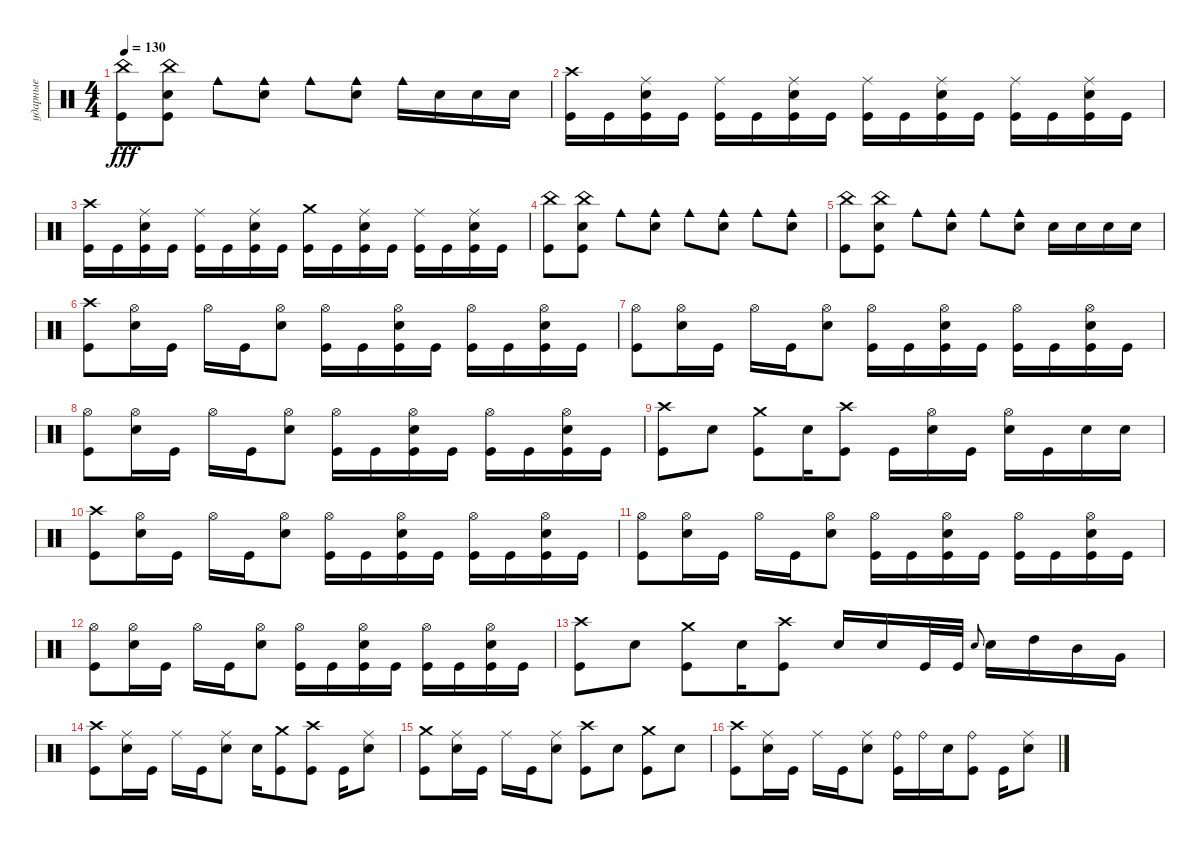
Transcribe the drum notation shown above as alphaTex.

\track ("ударные" "ударные") {instrument percussion}
\staff {score}
\articulation defaults
\ts (4 4)
\tempo 130
\clef neutral
\ks c
("China (hit)" "Kick (hit)").8{dy fff} ("China (hit)" "Snare (hit) 2" "Kick (hit)").8 "Cowbell medium (hit)".8 ("Cowbell medium (hit)" "Snare (hit) 2").8 "Cowbell medium (hit)".8 ("Cowbell medium (hit)" "Snare (hit) 2").8 "Cowbell medium (hit)".16 "Snare (hit) 2".16 "Snare (hit) 2".16 "Snare (hit) 2".16 |
("Crash high (hit)" "Kick (hit)").16 "Kick (hit)".16 ("Ride (middle)" "Snare (hit) 2" "Kick (hit)").16 "Kick (hit)".16 ("Ride (middle)" "Kick (hit)").16 "Kick (hit)".16 ("Ride (middle)" "Snare (hit) 2" "Kick (hit)").16 "Kick (hit)".16 ("Ride (middle)" "Kick (hit)").16 "Kick (hit)".16 ("Ride (middle)" "Snare (hit) 2" "Kick (hit)").16 "Kick (hit)".16 ("Ride (middle)" "Kick (hit)").16 "Kick (hit)".16 ("Ride (middle)" "Snare (hit) 2" "Kick (hit)").16 "Kick (hit)".16 |
("Crash high (hit)" "Kick (hit)").16 "Kick (hit)".16 ("Ride (middle)" "Snare (hit) 2" "Kick (hit)").16 "Kick (hit)".16 ("Ride (middle)" "Kick (hit)").16 "Kick (hit)".16 ("Ride (middle)" "Snare (hit) 2" "Kick (hit)").16 "Kick (hit)".16 ("Crash medium (hit)" "Kick (hit)").16 "Kick (hit)".16 ("Ride (middle)" "Snare (hit) 2" "Kick (hit)").16 "Kick (hit)".16 ("Ride (middle)" "Kick (hit)").16 "Kick (hit)".16 ("Ride (middle)" "Snare (hit) 2" "Kick (hit)").16 "Kick (hit)".16 |
("China (hit)" "Kick (hit)").8 ("China (hit)" "Snare (hit) 2" "Kick (hit)").8 "Cowbell medium (hit)".8 ("Cowbell medium (hit)" "Snare (hit) 2").8 "Cowbell medium (hit)".8 ("Cowbell medium (hit)" "Snare (hit) 2").8 "Cowbell medium (hit)".8 ("Cowbell medium (hit)" "Snare (hit) 2").8 |
("China (hit)" "Kick (hit)").8 ("China (hit)" "Snare (hit) 2" "Kick (hit)").8 "Cowbell medium (hit)".8 ("Cowbell medium (hit)" "Snare (hit) 2").8 "Cowbell medium (hit)".8 ("Cowbell medium (hit)" "Snare (hit) 2").8 "Snare (hit) 2".16 "Snare (hit) 2".16 "Snare (hit) 2".16 "Snare (hit) 2".16 |
("Crash high (hit)" "Kick (hit)").8 ("Hi-Hat (open)" "Snare (hit) 2").16 "Kick (hit)".16 "Hi-Hat (open)".16 "Kick (hit)".16 ("Hi-Hat (open)" "Snare (hit) 2").8 ("Hi-Hat (open)" "Kick (hit)").16 "Kick (hit)".16 ("Hi-Hat (open)" "Snare (hit) 2" "Kick (hit)").16 "Kick (hit)".16 ("Hi-Hat (open)" "Kick (hit)").16 "Kick (hit)".16 ("Hi-Hat (open)" "Snare (hit) 2" "Kick (hit)").16 "Kick (hit)".16 |
("Hi-Hat (open)" "Kick (hit)").8 ("Hi-Hat (open)" "Snare (hit) 2").16 "Kick (hit)".16 "Hi-Hat (open)".16 "Kick (hit)".16 ("Hi-Hat (open)" "Snare (hit) 2").8 ("Hi-Hat (open)" "Kick (hit)").16 "Kick (hit)".16 ("Hi-Hat (open)" "Snare (hit) 2" "Kick (hit)").16 "Kick (hit)".16 ("Hi-Hat (open)" "Kick (hit)").16 "Kick (hit)".16 ("Hi-Hat (open)" "Snare (hit) 2" "Kick (hit)").16 "Kick (hit)".16 |
("Hi-Hat (open)" "Kick (hit)").8 ("Hi-Hat (open)" "Snare (hit) 2").16 "Kick (hit)".16 "Hi-Hat (open)".16 "Kick (hit)".16 ("Hi-Hat (open)" "Snare (hit) 2").8 ("Hi-Hat (open)" "Kick (hit)").16 "Kick (hit)".16 ("Hi-Hat (open)" "Snare (hit) 2" "Kick (hit)").16 "Kick (hit)".16 ("Hi-Hat (open)" "Kick (hit)").16 "Kick (hit)".16 ("Hi-Hat (open)" "Snare (hit) 2" "Kick (hit)").16 "Kick (hit)".16 |
("Crash high (hit)" "Kick (hit)").8 "Snare (hit) 2".8 ("Crash medium (hit)" "Kick (hit)").8 "Snare (hit) 2".16 ("Crash high (hit)" "Kick (hit)").8 "Kick (hit)".16 ("Hi-Hat (open)" "Snare (hit) 2").16 "Kick (hit)".16 ("Hi-Hat (open)" "Snare (hit) 2").16 "Kick (hit)".16 "Snare (hit) 2".16 "Snare (hit) 2".16 |
("Crash high (hit)" "Kick (hit)").8 ("Hi-Hat (open)" "Snare (hit) 2").16 "Kick (hit)".16 "Hi-Hat (open)".16 "Kick (hit)".16 ("Hi-Hat (open)" "Snare (hit) 2").8 ("Hi-Hat (open)" "Kick (hit)").16 "Kick (hit)".16 ("Hi-Hat (open)" "Snare (hit) 2" "Kick (hit)").16 "Kick (hit)".16 ("Hi-Hat (open)" "Kick (hit)").16 "Kick (hit)".16 ("Hi-Hat (open)" "Snare (hit) 2" "Kick (hit)").16 "Kick (hit)".16 |
("Hi-Hat (open)" "Kick (hit)").8 ("Hi-Hat (open)" "Snare (hit) 2").16 "Kick (hit)".16 "Hi-Hat (open)".16 "Kick (hit)".16 ("Hi-Hat (open)" "Snare (hit) 2").8 ("Hi-Hat (open)" "Kick (hit)").16 "Kick (hit)".16 ("Hi-Hat (open)" "Snare (hit) 2" "Kick (hit)").16 "Kick (hit)".16 ("Hi-Hat (open)" "Kick (hit)").16 "Kick (hit)".16 ("Hi-Hat (open)" "Snare (hit) 2" "Kick (hit)").16 "Kick (hit)".16 |
("Hi-Hat (open)" "Kick (hit)").8 ("Hi-Hat (open)" "Snare (hit) 2").16 "Kick (hit)".16 "Hi-Hat (open)".16 "Kick (hit)".16 ("Hi-Hat (open)" "Snare (hit) 2").8 ("Hi-Hat (open)" "Kick (hit)").16 "Kick (hit)".16 ("Hi-Hat (open)" "Snare (hit) 2" "Kick (hit)").16 "Kick (hit)".16 ("Hi-Hat (open)" "Kick (hit)").16 "Kick (hit)".16 ("Hi-Hat (open)" "Snare (hit) 2" "Kick (hit)").16 "Kick (hit)".16 |
("Crash high (hit)" "Kick (hit)").8 "Snare (hit) 2".8 ("Crash medium (hit)" "Kick (hit)").8 "Snare (hit) 2".16 ("Crash high (hit)" "Kick (hit)").8 "Snare (hit) 2".16 "Snare (hit) 2".16 "Kick (hit)".32 "Kick (hit)".32 "Snare (hit)".8{gr onbeat} "Snare (hit) 2".16 "High Tom (hit)".16 "Mid Tom (hit)".16 "Very Low Tom (hit)".16 |
("Crash high (hit)" "Kick (hit)").8 ("Ride (middle)" "Snare (hit) 2").16 "Kick (hit)".16 "Ride (middle)".16 "Kick (hit)".16 ("Ride (middle)" "Snare (hit) 2").8 "Snare (hit) 2".16 ("Crash medium (hit)" "Kick (hit)").8 ("Crash high (hit)" "Kick (hit)").8 "Kick (hit)".16 ("Ride (middle)" "Snare (hit) 2").8 |
("Crash medium (hit)" "Kick (hit)").8 ("Ride (middle)" "Snare (hit) 2").16 "Kick (hit)".16 "Ride (middle)".16 "Kick (hit)".16 ("Ride (middle)" "Snare (hit) 2").8 ("Crash high (hit)" "Kick (hit)").8 "Snare (hit) 2".8 ("Crash medium (hit)" "Kick (hit)").8 "Snare (hit) 2".8 |
("Crash high (hit)" "Kick (hit)").8 ("Ride (middle)" "Snare (hit) 2").16 "Kick (hit)".16 "Ride (middle)".16 "Kick (hit)".16 ("Ride (middle)" "Snare (hit) 2").8 ("Ride (bell)" "Kick (hit)").16 "Ride (bell)".16 "Snare (hit) 2".16 ("Ride (bell)" "Kick (hit)").8 "Kick (hit)".16 ("Ride (middle)" "Snare (hit) 2").8
